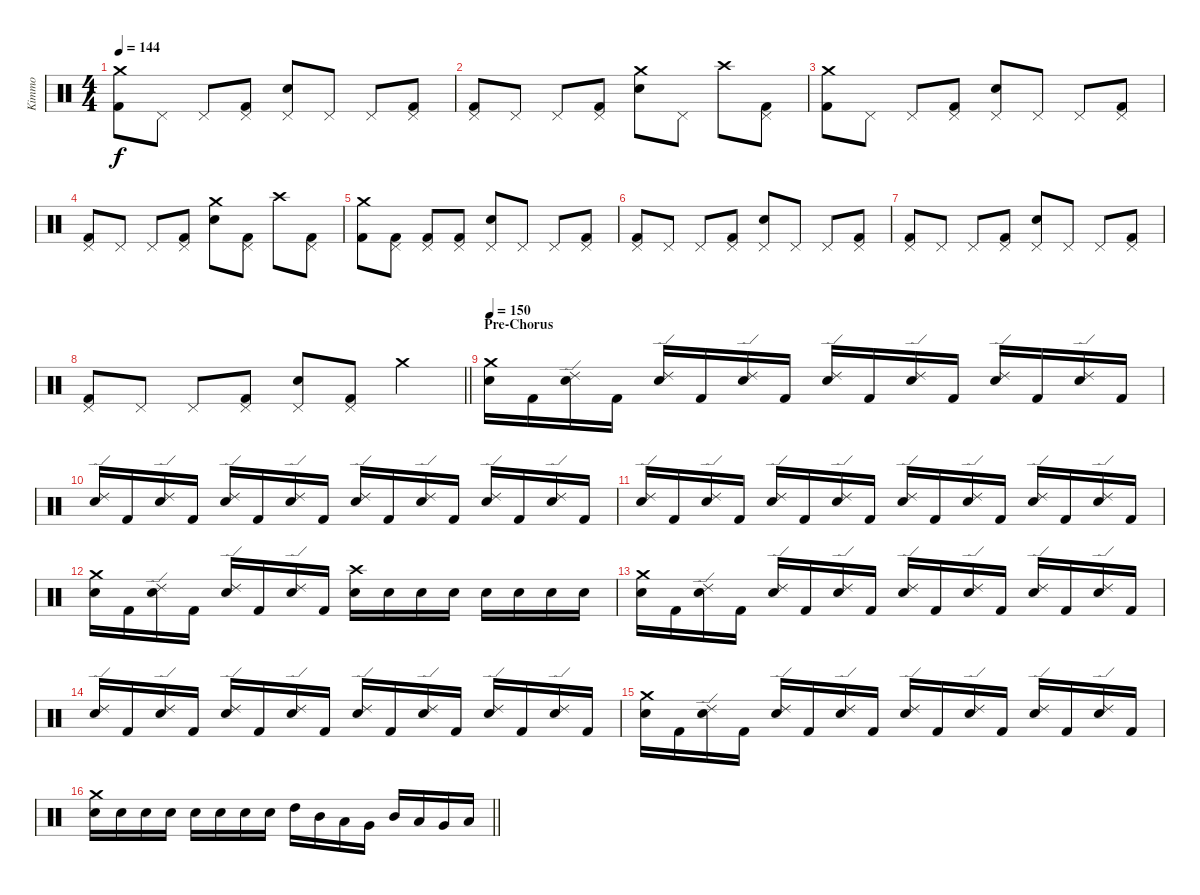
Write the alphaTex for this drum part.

\track ("Kimmo" "Kimmo") {instrument percussion}
\staff {score}
\articulation defaults
\ts (4 4)
\section ("" "")
\tempo 144
\clef neutral
\ks c
("Kick (hit) 2" "Crash medium (hit)").8{dy f} "Pedal Hi-Hat (hit)".8 "Pedal Hi-Hat (hit)".8 ("Kick (hit) 2" "Pedal Hi-Hat (hit)").8 ("Snare (hit) 2" "Pedal Hi-Hat (hit)").8 "Pedal Hi-Hat (hit)".8 "Pedal Hi-Hat (hit)".8 ("Kick (hit) 2" "Pedal Hi-Hat (hit)").8 |
("Kick (hit) 2" "Pedal Hi-Hat (hit)").8 "Pedal Hi-Hat (hit)".8 "Pedal Hi-Hat (hit)".8 ("Kick (hit) 2" "Pedal Hi-Hat (hit)").8 ("Snare (hit) 2" "Crash medium (hit)").8 "Pedal Hi-Hat (hit)".8 "Crash high (hit)".8 ("Kick (hit) 2" "Pedal Hi-Hat (hit)").8 |
("Kick (hit) 2" "Crash medium (hit)").8 "Pedal Hi-Hat (hit)".8 "Pedal Hi-Hat (hit)".8 ("Kick (hit) 2" "Pedal Hi-Hat (hit)").8 ("Snare (hit) 2" "Pedal Hi-Hat (hit)").8 "Pedal Hi-Hat (hit)".8 "Pedal Hi-Hat (hit)".8 ("Kick (hit) 2" "Pedal Hi-Hat (hit)").8 |
("Kick (hit) 2" "Pedal Hi-Hat (hit)").8 "Pedal Hi-Hat (hit)".8 "Pedal Hi-Hat (hit)".8 ("Kick (hit) 2" "Pedal Hi-Hat (hit)").8 ("Snare (hit) 2" "Crash medium (hit)").8 ("Kick (hit) 2" "Pedal Hi-Hat (hit)").8 "Crash high (hit)".8 ("Kick (hit) 2" "Pedal Hi-Hat (hit)").8 |
("Kick (hit) 2" "Crash medium (hit)").8 ("Kick (hit) 2" "Pedal Hi-Hat (hit)").8 ("Kick (hit) 2" "Pedal Hi-Hat (hit)").8 ("Kick (hit) 2" "Pedal Hi-Hat (hit)").8 ("Snare (hit) 2" "Pedal Hi-Hat (hit)").8 "Pedal Hi-Hat (hit)".8 "Pedal Hi-Hat (hit)".8 ("Kick (hit) 2" "Pedal Hi-Hat (hit)").8 |
("Kick (hit) 2" "Pedal Hi-Hat (hit)").8 "Pedal Hi-Hat (hit)".8 "Pedal Hi-Hat (hit)".8 ("Kick (hit) 2" "Pedal Hi-Hat (hit)").8 ("Snare (hit) 2" "Pedal Hi-Hat (hit)").8 "Pedal Hi-Hat (hit)".8 "Pedal Hi-Hat (hit)".8 ("Kick (hit) 2" "Pedal Hi-Hat (hit)").8 |
("Kick (hit) 2" "Pedal Hi-Hat (hit)").8 "Pedal Hi-Hat (hit)".8 "Pedal Hi-Hat (hit)".8 ("Kick (hit) 2" "Pedal Hi-Hat (hit)").8 ("Snare (hit) 2" "Pedal Hi-Hat (hit)").8 "Pedal Hi-Hat (hit)".8 "Pedal Hi-Hat (hit)".8 ("Kick (hit) 2" "Pedal Hi-Hat (hit)").8 |
\barLineRight lightlight
("Kick (hit) 2" "Pedal Hi-Hat (hit)").8 "Pedal Hi-Hat (hit)".8 "Pedal Hi-Hat (hit)".8 ("Kick (hit) 2" "Pedal Hi-Hat (hit)").8 ("Snare (hit) 2" "Pedal Hi-Hat (hit)").8 ("Kick (hit) 2" "Pedal Hi-Hat (hit)").8 "Crash medium (hit)".4 |
\section ("" "Pre-Chorus")
\tempo 150
("Snare (hit) 2" "Crash medium (hit)").16 "Kick (hit) 2".16 ("Snare (hit) 2" "Ride (edge) 2").16 "Kick (hit) 2".16 ("Snare (hit) 2" "Ride (edge) 2").16 "Kick (hit) 2".16 ("Snare (hit) 2" "Ride (edge) 2").16 "Kick (hit) 2".16 ("Snare (hit) 2" "Ride (edge) 2").16 "Kick (hit) 2".16 ("Snare (hit) 2" "Ride (edge) 2").16 "Kick (hit) 2".16 ("Snare (hit) 2" "Ride (edge) 2").16 "Kick (hit) 2".16 ("Snare (hit) 2" "Ride (edge) 2").16 "Kick (hit) 2".16 |
("Snare (hit) 2" "Ride (edge) 2").16 "Kick (hit) 2".16 ("Snare (hit) 2" "Ride (edge) 2").16 "Kick (hit) 2".16 ("Snare (hit) 2" "Ride (edge) 2").16 "Kick (hit) 2".16 ("Snare (hit) 2" "Ride (edge) 2").16 "Kick (hit) 2".16 ("Snare (hit) 2" "Ride (edge) 2").16 "Kick (hit) 2".16 ("Snare (hit) 2" "Ride (edge) 2").16 "Kick (hit) 2".16 ("Snare (hit) 2" "Ride (edge) 2").16 "Kick (hit) 2".16 ("Snare (hit) 2" "Ride (edge) 2").16 "Kick (hit) 2".16 |
("Snare (hit) 2" "Ride (edge) 2").16 "Kick (hit) 2".16 ("Snare (hit) 2" "Ride (edge) 2").16 "Kick (hit) 2".16 ("Snare (hit) 2" "Ride (edge) 2").16 "Kick (hit) 2".16 ("Snare (hit) 2" "Ride (edge) 2").16 "Kick (hit) 2".16 ("Snare (hit) 2" "Ride (edge) 2").16 "Kick (hit) 2".16 ("Snare (hit) 2" "Ride (edge) 2").16 "Kick (hit) 2".16 ("Snare (hit) 2" "Ride (edge) 2").16 "Kick (hit) 2".16 ("Snare (hit) 2" "Ride (edge) 2").16 "Kick (hit) 2".16 |
("Snare (hit) 2" "Crash medium (hit)").16 "Kick (hit) 2".16 ("Snare (hit) 2" "Ride (edge) 2").16 "Kick (hit) 2".16 ("Snare (hit) 2" "Ride (edge) 2").16 "Kick (hit) 2".16 ("Snare (hit) 2" "Ride (edge) 2").16 "Kick (hit) 2".16 ("Snare (hit) 2" "Crash high (hit)").16 "Snare (hit) 2".16 "Snare (hit) 2".16 "Snare (hit) 2".16 "Snare (hit) 2".16 "Snare (hit) 2".16 "Snare (hit) 2".16 "Snare (hit) 2".16 |
("Snare (hit) 2" "Crash medium (hit)").16 "Kick (hit) 2".16 ("Snare (hit) 2" "Ride (edge) 2").16 "Kick (hit) 2".16 ("Snare (hit) 2" "Ride (edge) 2").16 "Kick (hit) 2".16 ("Snare (hit) 2" "Ride (edge) 2").16 "Kick (hit) 2".16 ("Snare (hit) 2" "Ride (edge) 2").16 "Kick (hit) 2".16 ("Snare (hit) 2" "Ride (edge) 2").16 "Kick (hit) 2".16 ("Snare (hit) 2" "Ride (edge) 2").16 "Kick (hit) 2".16 ("Snare (hit) 2" "Ride (edge) 2").16 "Kick (hit) 2".16 |
("Snare (hit) 2" "Ride (edge) 2").16 "Kick (hit) 2".16 ("Snare (hit) 2" "Ride (edge) 2").16 "Kick (hit) 2".16 ("Snare (hit) 2" "Ride (edge) 2").16 "Kick (hit) 2".16 ("Snare (hit) 2" "Ride (edge) 2").16 "Kick (hit) 2".16 ("Snare (hit) 2" "Ride (edge) 2").16 "Kick (hit) 2".16 ("Snare (hit) 2" "Ride (edge) 2").16 "Kick (hit) 2".16 ("Snare (hit) 2" "Ride (edge) 2").16 "Kick (hit) 2".16 ("Snare (hit) 2" "Ride (edge) 2").16 "Kick (hit) 2".16 |
("Snare (hit) 2" "Crash medium (hit)").16 "Kick (hit) 2".16 ("Snare (hit) 2" "Ride (edge) 2").16 "Kick (hit) 2".16 ("Snare (hit) 2" "Ride (edge) 2").16 "Kick (hit) 2".16 ("Snare (hit) 2" "Ride (edge) 2").16 "Kick (hit) 2".16 ("Snare (hit) 2" "Ride (edge) 2").16 "Kick (hit) 2".16 ("Snare (hit) 2" "Ride (edge) 2").16 "Kick (hit) 2".16 ("Snare (hit) 2" "Ride (edge) 2").16 "Kick (hit) 2".16 ("Snare (hit) 2" "Ride (edge) 2").16 "Kick (hit) 2".16 |
\barLineRight lightlight
("Snare (hit) 2" "Crash medium (hit)").16 "Snare (hit) 2".16 "Snare (hit) 2".16 "Snare (hit) 2".16 "Snare (hit) 2".16 "Snare (hit) 2".16 "Snare (hit) 2".16 "Snare (hit) 2".16 "High Tom (hit)".16 "Mid Tom (hit)".16 "Low Tom (hit)".16 "Very Low Tom (hit)".16 "Mid Tom (hit)".16 "Low Tom (hit)".16 "Very Low Tom (hit)".16 "Low Floor Tom (hit)".16
